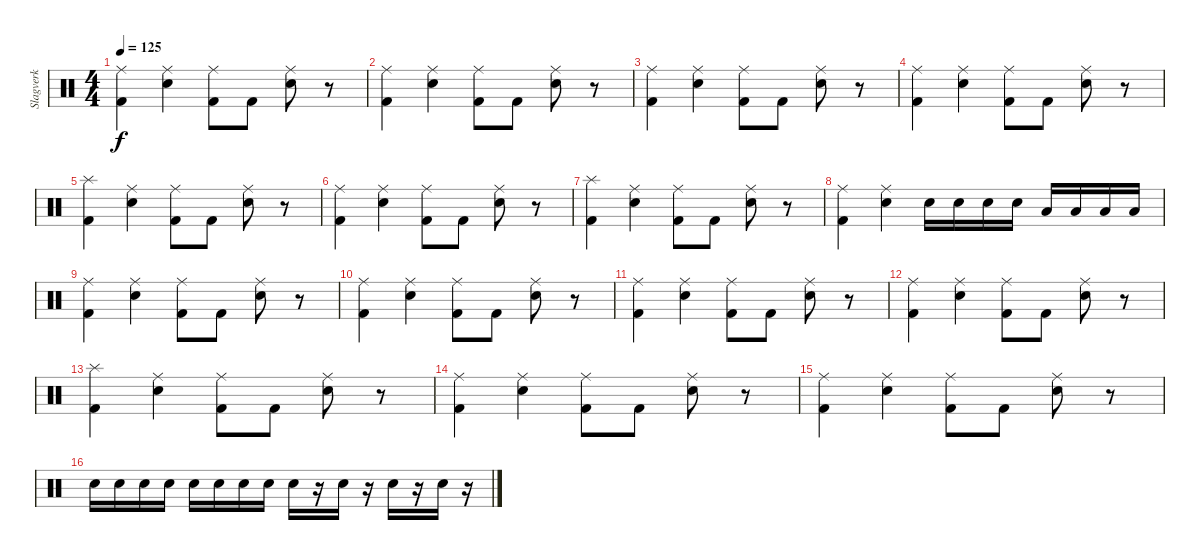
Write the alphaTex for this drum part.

\track ("Slagverk" "Slagverk") {instrument percussion}
\staff {score}
\articulation defaults
\ts (4 4)
\tempo 125
\clef neutral
\ks c
("Ride (middle)" "Kick (hit) 2").4{dy f} ("Ride (middle)" "Electric Snare (hit)").4 ("Ride (middle)" "Kick (hit) 2").8 "Kick (hit) 2".8 ("Ride (middle)" "Electric Snare (hit)").8 r.8 |
("Ride (middle)" "Kick (hit) 2").4 ("Ride (middle)" "Electric Snare (hit)").4 ("Ride (middle)" "Kick (hit) 2").8 "Kick (hit) 2".8 ("Ride (middle)" "Electric Snare (hit)").8 r.8 |
("Ride (middle)" "Kick (hit) 2").4 ("Ride (middle)" "Electric Snare (hit)").4 ("Ride (middle)" "Kick (hit) 2").8 "Kick (hit) 2".8 ("Ride (middle)" "Electric Snare (hit)").8 r.8 |
("Ride (middle)" "Kick (hit) 2").4 ("Ride (middle)" "Electric Snare (hit)").4 ("Ride (middle)" "Kick (hit) 2").8 "Kick (hit) 2".8 ("Ride (middle)" "Electric Snare (hit)").8 r.8 |
("Splash (hit)" "Kick (hit) 2").4 ("Ride (middle)" "Electric Snare (hit)").4 ("Ride (middle)" "Kick (hit) 2").8 "Kick (hit) 2".8 ("Ride (middle)" "Electric Snare (hit)").8 r.8 |
("Ride (middle)" "Kick (hit) 2").4 ("Ride (middle)" "Electric Snare (hit)").4 ("Ride (middle)" "Kick (hit) 2").8 "Kick (hit) 2".8 ("Ride (middle)" "Electric Snare (hit)").8 r.8 |
("Splash (hit)" "Kick (hit) 2").4 ("Ride (middle)" "Electric Snare (hit)").4 ("Ride (middle)" "Kick (hit) 2").8 "Kick (hit) 2".8 ("Ride (middle)" "Electric Snare (hit)").8 r.8 |
("Ride (middle)" "Kick (hit) 2").4 ("Ride (middle)" "Electric Snare (hit)").4 "Electric Snare (hit)".16 "Electric Snare (hit)".16 "Electric Snare (hit)".16 "Electric Snare (hit)".16 "Low Tom (hit)".16 "Low Tom (hit)".16 "Low Tom (hit)".16 "Low Tom (hit)".16 |
("Ride (middle)" "Kick (hit) 2").4 ("Ride (middle)" "Electric Snare (hit)").4 ("Ride (middle)" "Kick (hit) 2").8 "Kick (hit) 2".8 ("Ride (middle)" "Electric Snare (hit)").8 r.8 |
("Ride (middle)" "Kick (hit) 2").4 ("Ride (middle)" "Electric Snare (hit)").4 ("Ride (middle)" "Kick (hit) 2").8 "Kick (hit) 2".8 ("Ride (middle)" "Electric Snare (hit)").8 r.8 |
("Ride (middle)" "Kick (hit) 2").4 ("Ride (middle)" "Electric Snare (hit)").4 ("Ride (middle)" "Kick (hit) 2").8 "Kick (hit) 2".8 ("Ride (middle)" "Electric Snare (hit)").8 r.8 |
("Ride (middle)" "Kick (hit) 2").4 ("Ride (middle)" "Electric Snare (hit)").4 ("Ride (middle)" "Kick (hit) 2").8 "Kick (hit) 2".8 ("Ride (middle)" "Electric Snare (hit)").8 r.8 |
("Splash (hit)" "Kick (hit) 2").4 ("Ride (middle)" "Electric Snare (hit)").4 ("Ride (middle)" "Kick (hit) 2").8 "Kick (hit) 2".8 ("Ride (middle)" "Electric Snare (hit)").8 r.8 |
("Ride (middle)" "Kick (hit) 2").4 ("Ride (middle)" "Electric Snare (hit)").4 ("Ride (middle)" "Kick (hit) 2").8 "Kick (hit) 2".8 ("Ride (middle)" "Electric Snare (hit)").8 r.8 |
("Ride (middle)" "Kick (hit) 2").4 ("Ride (middle)" "Electric Snare (hit)").4 ("Ride (middle)" "Kick (hit) 2").8 "Kick (hit) 2".8 ("Ride (middle)" "Electric Snare (hit)").8 r.8 |
"Electric Snare (hit)".16 "Electric Snare (hit)".16 "Electric Snare (hit)".16 "Electric Snare (hit)".16 "Electric Snare (hit)".16 "Electric Snare (hit)".16 "Electric Snare (hit)".16 "Electric Snare (hit)".16 "Electric Snare (hit)".16 r.16 "Electric Snare (hit)".16 r.16 "Electric Snare (hit)".16 r.16 "Electric Snare (hit)".16 r.16
